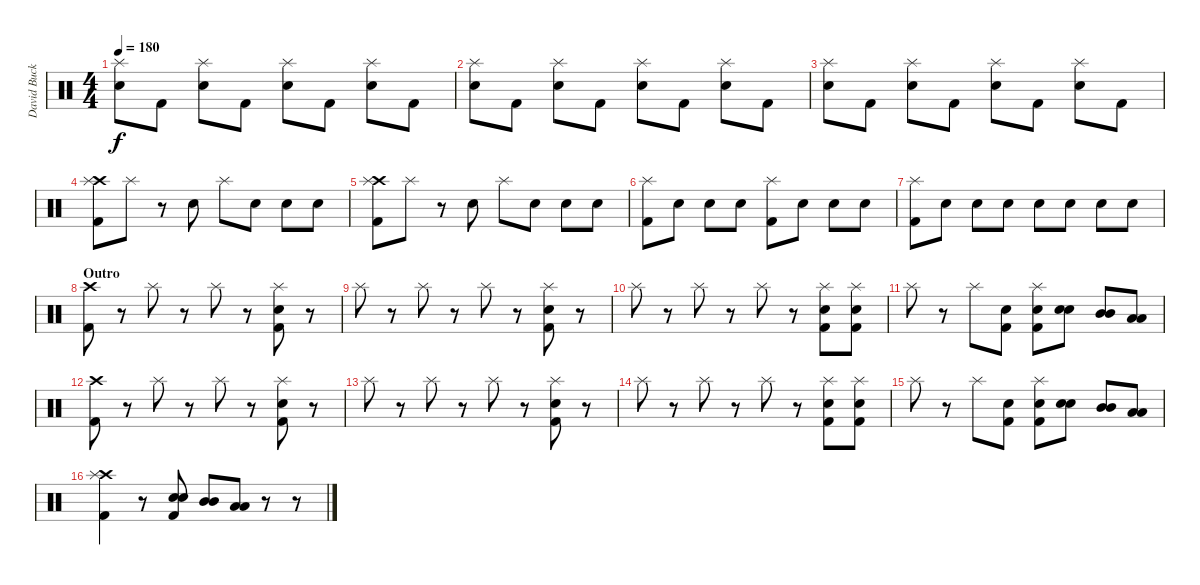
\track ("David Buckner" "David Buck") {instrument percussion}
\staff {score}
\articulation defaults
\ts (4 4)
\tempo 180
\clef neutral
\ks c
("Splash (hit)" "Snare (hit) 2").8{dy f} "Kick (hit) 2".8 ("Splash (hit)" "Snare (hit) 2").8 "Kick (hit) 2".8 ("Splash (hit)" "Snare (hit) 2").8 "Kick (hit) 2".8 ("Splash (hit)" "Snare (hit) 2").8 "Kick (hit) 2".8 |
("Splash (hit)" "Snare (hit) 2").8 "Kick (hit) 2".8 ("Splash (hit)" "Snare (hit) 2").8 "Kick (hit) 2".8 ("Splash (hit)" "Snare (hit) 2").8 "Kick (hit) 2".8 ("Splash (hit)" "Snare (hit) 2").8 "Kick (hit) 2".8 |
("Splash (hit)" "Snare (hit) 2").8 "Kick (hit) 2".8 ("Splash (hit)" "Snare (hit) 2").8 "Kick (hit) 2".8 ("Splash (hit)" "Snare (hit) 2").8 "Kick (hit) 2".8 ("Splash (hit)" "Snare (hit) 2").8 "Kick (hit) 2".8 |
("Crash high (hit)" "Splash (hit)" "Kick (hit) 2").8 "Splash (hit)".8 r.8 "Snare (hit) 2".8 "Splash (hit)".8 "Snare (hit) 2".8 "Snare (hit) 2".8 "Snare (hit) 2".8 |
("Crash high (hit)" "Splash (hit)" "Kick (hit) 2").8 "Splash (hit)".8 r.8 "Snare (hit) 2".8 "Splash (hit)".8 "Snare (hit) 2".8 "Snare (hit) 2".8 "Snare (hit) 2".8 |
("Splash (hit)" "Kick (hit) 2").8 "Snare (hit) 2".8 "Snare (hit) 2".8 "Snare (hit) 2".8 ("Splash (hit)" "Kick (hit) 2").8 "Snare (hit) 2".8 "Snare (hit) 2".8 "Snare (hit) 2".8 |
("Splash (hit)" "Kick (hit) 2").8 "Snare (hit) 2".8 "Snare (hit) 2".8 "Snare (hit) 2".8 "Snare (hit) 2".8 "Snare (hit) 2".8 "Snare (hit) 2".8 "Snare (hit) 2".8 |
\section ("" "Outro")
("Crash high (hit)" "Kick (hit) 2").8 r.8 "Splash (hit)".8 r.8 "Splash (hit)".8 r.8 ("Splash (hit)" "Snare (hit) 2" "Kick (hit) 2").8 r.8 |
"Splash (hit)".8 r.8 "Splash (hit)".8 r.8 "Splash (hit)".8 r.8 ("Splash (hit)" "Snare (hit) 2" "Kick (hit) 2").8 r.8 |
"Splash (hit)".8 r.8 "Splash (hit)".8 r.8 "Splash (hit)".8 r.8 ("Splash (hit)" "Snare (hit) 2" "Kick (hit) 2").8 ("Splash (hit)" "Snare (hit) 2" "Kick (hit) 2").8 |
"Splash (hit)".8 r.8 "Splash (hit)".8 ("Snare (hit) 2" "Kick (hit) 2").8 ("Splash (hit)" "Snare (hit) 2" "Kick (hit) 2").8 ("Snare (hit) 2" "Snare (hit) 2").8 ("Mid Tom (hit)" "Mid Tom (hit)").8 ("Low Tom (hit)" "Low Tom (hit)").8 |
("Crash high (hit)" "Kick (hit) 2").8 r.8 "Splash (hit)".8 r.8 "Splash (hit)".8 r.8 ("Splash (hit)" "Snare (hit) 2" "Kick (hit) 2").8 r.8 |
"Splash (hit)".8 r.8 "Splash (hit)".8 r.8 "Splash (hit)".8 r.8 ("Splash (hit)" "Snare (hit) 2" "Kick (hit) 2").8 r.8 |
"Splash (hit)".8 r.8 "Splash (hit)".8 r.8 "Splash (hit)".8 r.8 ("Splash (hit)" "Snare (hit) 2" "Kick (hit) 2").8 ("Splash (hit)" "Snare (hit) 2" "Kick (hit) 2").8 |
"Splash (hit)".8 r.8 "Splash (hit)".8 ("Snare (hit) 2" "Kick (hit) 2").8 ("Splash (hit)" "Snare (hit) 2" "Kick (hit) 2").8 ("Snare (hit) 2" "Snare (hit) 2").8 ("Mid Tom (hit)" "Mid Tom (hit)").8 ("Low Tom (hit)" "Low Tom (hit)").8 |
("Crash high (hit)" "Splash (hit)" "Kick (hit) 2").4 r.8 ("Snare (hit) 2" "Snare (hit) 2" "Kick (hit) 2").8 ("Mid Tom (hit)" "Mid Tom (hit)").8 ("Low Tom (hit)" "Low Tom (hit)").8 r.8 r.8
